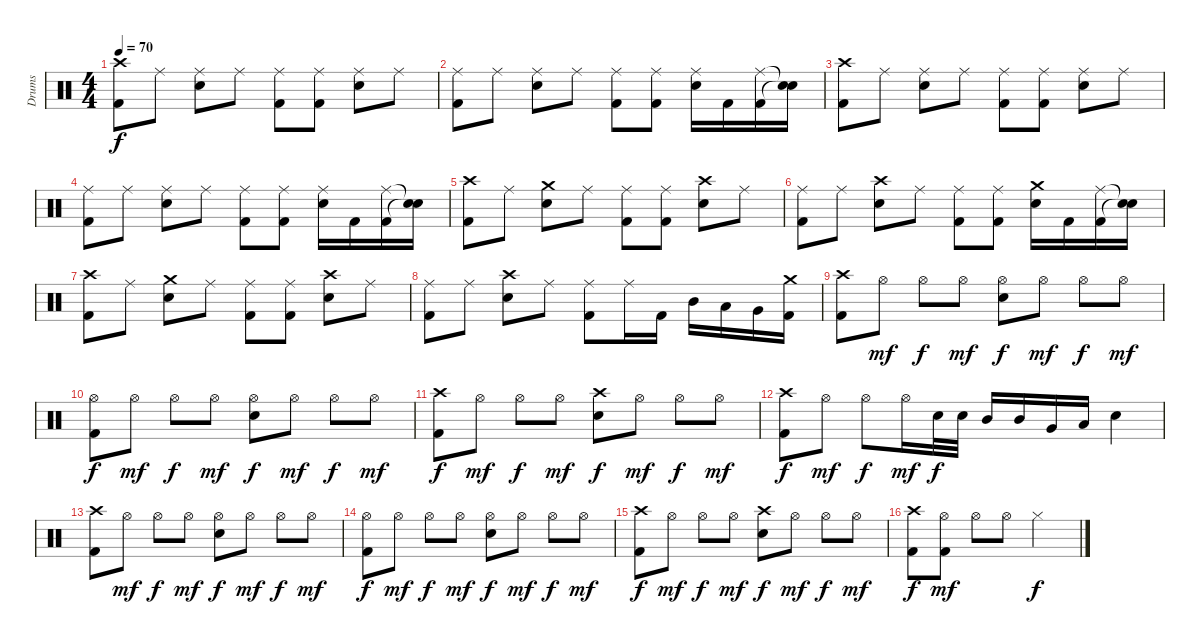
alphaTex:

\track ("Drums" "Drums") {instrument percussion}
\staff {score}
\articulation defaults
\ts (4 4)
\tempo 70
\clef neutral
\ks c
("Crash high (hit)" "Kick (hit) 2").8{dy f} "Ride (middle)".8 ("Ride (middle)" "Snare (hit) 2").8 "Ride (middle)".8 ("Ride (middle)" "Kick (hit) 2").8 ("Ride (middle)" "Kick (hit) 2").8 ("Ride (middle)" "Snare (hit) 2").8 "Ride (middle)".8 |
("Ride (middle)" "Kick (hit) 2").8 "Ride (middle)".8 ("Ride (middle)" "Snare (hit) 2").8 "Ride (middle)".8 ("Ride (middle)" "Kick (hit) 2").8 ("Ride (middle)" "Kick (hit) 2").8 ("Ride (middle)" "Snare (hit) 2").16 "Kick (hit) 2".16 ("Ride (middle)" "Kick (hit) 2").16 ("Snare (hit)"{t} "Snare (hit)"{t}).16 |
("Crash high (hit)" "Kick (hit) 2").8 "Ride (middle)".8 ("Ride (middle)" "Snare (hit) 2").8 "Ride (middle)".8 ("Ride (middle)" "Kick (hit) 2").8 ("Ride (middle)" "Kick (hit) 2").8 ("Ride (middle)" "Snare (hit) 2").8 "Ride (middle)".8 |
("Ride (middle)" "Kick (hit) 2").8 "Ride (middle)".8 ("Ride (middle)" "Snare (hit) 2").8 "Ride (middle)".8 ("Ride (middle)" "Kick (hit) 2").8 ("Ride (middle)" "Kick (hit) 2").8 ("Ride (middle)" "Snare (hit) 2").16 "Kick (hit) 2".16 ("Ride (middle)" "Kick (hit) 2").16 ("Snare (hit)"{t} "Snare (hit)"{t}).16 |
("Crash high (hit)" "Kick (hit) 2").8 "Ride (middle)".8 ("Crash medium (hit)" "Snare (hit) 2").8 "Ride (middle)".8 ("Ride (middle)" "Kick (hit) 2").8 ("Ride (middle)" "Kick (hit) 2").8 ("Crash high (hit)" "Snare (hit) 2").8 "Ride (middle)".8 |
("Ride (middle)" "Kick (hit) 2").8 "Ride (middle)".8 ("Crash high (hit)" "Snare (hit) 2").8 "Ride (middle)".8 ("Ride (middle)" "Kick (hit) 2").8 ("Ride (middle)" "Kick (hit) 2").8 ("Crash medium (hit)" "Snare (hit) 2").16 "Kick (hit) 2".16 ("Ride (middle)" "Kick (hit) 2").16 ("Snare (hit)"{t} "Snare (hit)"{t}).16 |
("Crash high (hit)" "Kick (hit) 2").8 "Ride (middle)".8 ("Crash medium (hit)" "Snare (hit) 2").8 "Ride (middle)".8 ("Ride (middle)" "Kick (hit) 2").8 ("Ride (middle)" "Kick (hit) 2").8 ("Crash high (hit)" "Snare (hit) 2").8 "Ride (middle)".8 |
("Ride (middle)" "Kick (hit) 2").8 "Ride (middle)".8 ("Crash high (hit)" "Snare (hit) 2").8 "Ride (middle)".8 ("Ride (middle)" "Kick (hit) 2").8 "Ride (middle)".16 "Kick (hit) 2".16 "Mid Tom (hit)".16 "Low Tom (hit)".16 "Very Low Tom (hit)".16 ("Crash medium (hit)" "Kick (hit) 2").16 |
("Crash high (hit)" "Kick (hit) 2").8 "Hi-Hat (open)".8{dy mf} "Hi-Hat (open)".8{dy f} "Hi-Hat (open)".8{dy mf} ("Hi-Hat (open)" "Snare (hit) 2").8{dy f} "Hi-Hat (open)".8{dy mf} "Hi-Hat (open)".8{dy f} "Hi-Hat (open)".8{dy mf} |
("Hi-Hat (open)" "Kick (hit) 2").8{dy f} "Hi-Hat (open)".8{dy mf} "Hi-Hat (open)".8{dy f} "Hi-Hat (open)".8{dy mf} ("Hi-Hat (open)" "Snare (hit) 2").8{dy f} "Hi-Hat (open)".8{dy mf} "Hi-Hat (open)".8{dy f} "Hi-Hat (open)".8{dy mf} |
("Crash high (hit)" "Kick (hit) 2").8{dy f} "Hi-Hat (open)".8{dy mf} "Hi-Hat (open)".8{dy f} "Hi-Hat (open)".8{dy mf} ("Crash high (hit)" "Snare (hit) 2").8{dy f} "Hi-Hat (open)".8{dy mf} "Hi-Hat (open)".8{dy f} "Hi-Hat (open)".8{dy mf} |
("Crash high (hit)" "Kick (hit) 2").8{dy f} "Hi-Hat (open)".8{dy mf} "Hi-Hat (open)".8{dy f} "Hi-Hat (open)".16{dy mf} "Snare (hit) 2".32{dy f} "Snare (hit) 2".32 "Mid Tom (hit)".16 "Mid Tom (hit)".16 "Very Low Tom (hit)".16 "Low Floor Tom (hit)".16 "Snare (hit) 2".4 |
("Crash high (hit)" "Kick (hit) 2").8 "Hi-Hat (open)".8{dy mf} "Hi-Hat (open)".8{dy f} "Hi-Hat (open)".8{dy mf} ("Hi-Hat (open)" "Snare (hit) 2").8{dy f} "Hi-Hat (open)".8{dy mf} "Hi-Hat (open)".8{dy f} "Hi-Hat (open)".8{dy mf} |
("Hi-Hat (open)" "Kick (hit) 2").8{dy f} "Hi-Hat (open)".8{dy mf} "Hi-Hat (open)".8{dy f} "Hi-Hat (open)".8{dy mf} ("Hi-Hat (open)" "Snare (hit) 2").8{dy f} "Hi-Hat (open)".8{dy mf} "Hi-Hat (open)".8{dy f} "Hi-Hat (open)".8{dy mf} |
("Crash high (hit)" "Kick (hit) 2").8{dy f} "Hi-Hat (open)".8{dy mf} "Hi-Hat (open)".8{dy f} "Hi-Hat (open)".8{dy mf} ("Crash high (hit)" "Snare (hit) 2").8{dy f} "Hi-Hat (open)".8{dy mf} "Hi-Hat (open)".8{dy f} "Hi-Hat (open)".8{dy mf} |
("Crash high (hit)" "Kick (hit) 2").8{dy f} ("Hi-Hat (open)" "Kick (hit) 2").8{dy mf} "Hi-Hat (open)".8 "Hi-Hat (open)".8 "Hi-Hat (closed)".2{dy f}
